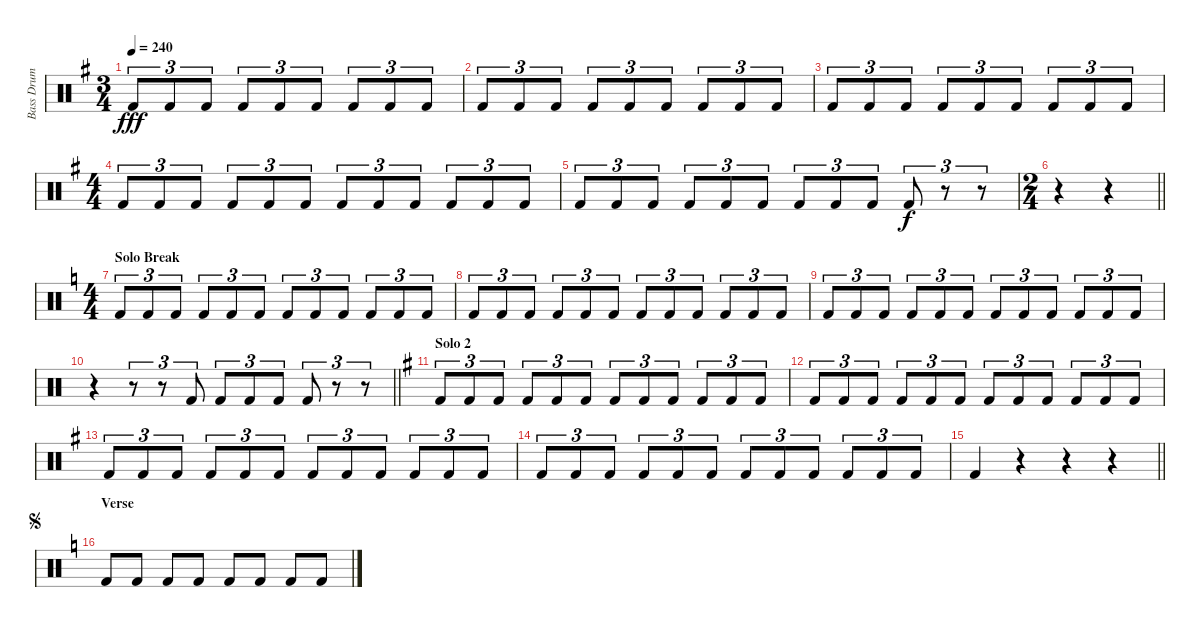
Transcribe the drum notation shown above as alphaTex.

\track ("Bass Drum" "Bass Drum") {instrument percussion}
\staff {score}
\articulation defaults
\ts (3 4)
\tempo 240
\clef neutral
\ks g "Kick (hit) 2".8{tu (3 2) dy fff} "Kick (hit) 2".8{tu (3 2)} "Kick (hit) 2".8{tu (3 2)} "Kick (hit) 2".8{tu (3 2)} "Kick (hit) 2".8{tu (3 2)} "Kick (hit) 2".8{tu (3 2)} "Kick (hit) 2".8{tu (3 2)} "Kick (hit) 2".8{tu (3 2)} "Kick (hit) 2".8{tu (3 2)}
|
"Kick (hit) 2".8{tu (3 2)} "Kick (hit) 2".8{tu (3 2)} "Kick (hit) 2".8{tu (3 2)} "Kick (hit) 2".8{tu (3 2)} "Kick (hit) 2".8{tu (3 2)} "Kick (hit) 2".8{tu (3 2)} "Kick (hit) 2".8{tu (3 2)} "Kick (hit) 2".8{tu (3 2)} "Kick (hit) 2".8{tu (3 2)} |
"Kick (hit) 2".8{tu (3 2)} "Kick (hit) 2".8{tu (3 2)} "Kick (hit) 2".8{tu (3 2)} "Kick (hit) 2".8{tu (3 2)} "Kick (hit) 2".8{tu (3 2)} "Kick (hit) 2".8{tu (3 2)} "Kick (hit) 2".8{tu (3 2)} "Kick (hit) 2".8{tu (3 2)} "Kick (hit) 2".8{tu (3 2)} |
\ts (4 4)
"Kick (hit) 2".8{tu (3 2)} "Kick (hit) 2".8{tu (3 2)} "Kick (hit) 2".8{tu (3 2)} "Kick (hit) 2".8{tu (3 2)} "Kick (hit) 2".8{tu (3 2)} "Kick (hit) 2".8{tu (3 2)} "Kick (hit) 2".8{tu (3 2)} "Kick (hit) 2".8{tu (3 2)} "Kick (hit) 2".8{tu (3 2)} "Kick (hit) 2".8{tu (3 2)} "Kick (hit) 2".8{tu (3 2)} "Kick (hit) 2".8{tu (3 2)} |
"Kick (hit) 2".8{tu (3 2)} "Kick (hit) 2".8{tu (3 2)} "Kick (hit) 2".8{tu (3 2)} "Kick (hit) 2".8{tu (3 2)} "Kick (hit) 2".8{tu (3 2)} "Kick (hit) 2".8{tu (3 2)} "Kick (hit) 2".8{tu (3 2)} "Kick (hit) 2".8{tu (3 2)} "Kick (hit) 2".8{tu (3 2)} "Kick (hit) 2".8{tu (3 2) dy f} r.8{tu (3 2)} r.8{tu (3 2)} |
\ts (2 4)
\barLineRight lightlight
r.4 r.4 |
\ts (4 4)
\section ("" "Solo Break")
\ks c "Kick (hit) 2".8{tu (3 2)} "Kick (hit) 2".8{tu (3 2)} "Kick (hit) 2".8{tu (3 2)} "Kick (hit) 2".8{tu (3 2)} "Kick (hit) 2".8{tu (3 2)} "Kick (hit) 2".8{tu (3 2)} "Kick (hit) 2".8{tu (3 2)} "Kick (hit) 2".8{tu (3 2)} "Kick (hit) 2".8{tu (3 2)} "Kick (hit) 2".8{tu (3 2)} "Kick (hit) 2".8{tu (3 2)} "Kick (hit) 2".8{tu (3 2)}
|
"Kick (hit) 2".8{tu (3 2)} "Kick (hit) 2".8{tu (3 2)} "Kick (hit) 2".8{tu (3 2)} "Kick (hit) 2".8{tu (3 2)} "Kick (hit) 2".8{tu (3 2)} "Kick (hit) 2".8{tu (3 2)} "Kick (hit) 2".8{tu (3 2)} "Kick (hit) 2".8{tu (3 2)} "Kick (hit) 2".8{tu (3 2)} "Kick (hit) 2".8{tu (3 2)} "Kick (hit) 2".8{tu (3 2)} "Kick (hit) 2".8{tu (3 2)} |
"Kick (hit) 2".8{tu (3 2)} "Kick (hit) 2".8{tu (3 2)} "Kick (hit) 2".8{tu (3 2)} "Kick (hit) 2".8{tu (3 2)} "Kick (hit) 2".8{tu (3 2)} "Kick (hit) 2".8{tu (3 2)} "Kick (hit) 2".8{tu (3 2)} "Kick (hit) 2".8{tu (3 2)} "Kick (hit) 2".8{tu (3 2)} "Kick (hit) 2".8{tu (3 2)} "Kick (hit) 2".8{tu (3 2)} "Kick (hit) 2".8{tu (3 2)} |
\barLineRight lightlight
r.4 r.8{tu (3 2)} r.8{tu (3 2)} "Kick (hit) 2".8{tu (3 2)} "Kick (hit) 2".8{tu (3 2)} "Kick (hit) 2".8{tu (3 2)} "Kick (hit) 2".8{tu (3 2)} "Kick (hit) 2".8{tu (3 2)} r.8{tu (3 2)} r.8{tu (3 2)} |
\section ("" "Solo 2")
\ks g "Kick (hit) 2".8{tu (3 2)} "Kick (hit) 2".8{tu (3 2)} "Kick (hit) 2".8{tu (3 2)} "Kick (hit) 2".8{tu (3 2)} "Kick (hit) 2".8{tu (3 2)} "Kick (hit) 2".8{tu (3 2)} "Kick (hit) 2".8{tu (3 2)} "Kick (hit) 2".8{tu (3 2)} "Kick (hit) 2".8{tu (3 2)} "Kick (hit) 2".8{tu (3 2)} "Kick (hit) 2".8{tu (3 2)} "Kick (hit) 2".8{tu (3 2)}
|
"Kick (hit) 2".8{tu (3 2)} "Kick (hit) 2".8{tu (3 2)} "Kick (hit) 2".8{tu (3 2)} "Kick (hit) 2".8{tu (3 2)} "Kick (hit) 2".8{tu (3 2)} "Kick (hit) 2".8{tu (3 2)} "Kick (hit) 2".8{tu (3 2)} "Kick (hit) 2".8{tu (3 2)} "Kick (hit) 2".8{tu (3 2)} "Kick (hit) 2".8{tu (3 2)} "Kick (hit) 2".8{tu (3 2)} "Kick (hit) 2".8{tu (3 2)} |
"Kick (hit) 2".8{tu (3 2)} "Kick (hit) 2".8{tu (3 2)} "Kick (hit) 2".8{tu (3 2)} "Kick (hit) 2".8{tu (3 2)} "Kick (hit) 2".8{tu (3 2)} "Kick (hit) 2".8{tu (3 2)} "Kick (hit) 2".8{tu (3 2)} "Kick (hit) 2".8{tu (3 2)} "Kick (hit) 2".8{tu (3 2)} "Kick (hit) 2".8{tu (3 2)} "Kick (hit) 2".8{tu (3 2)} "Kick (hit) 2".8{tu (3 2)} |
"Kick (hit) 2".8{tu (3 2)} "Kick (hit) 2".8{tu (3 2)} "Kick (hit) 2".8{tu (3 2)} "Kick (hit) 2".8{tu (3 2)} "Kick (hit) 2".8{tu (3 2)} "Kick (hit) 2".8{tu (3 2)} "Kick (hit) 2".8{tu (3 2)} "Kick (hit) 2".8{tu (3 2)} "Kick (hit) 2".8{tu (3 2)} "Kick (hit) 2".8{tu (3 2)} "Kick (hit) 2".8{tu (3 2)} "Kick (hit) 2".8{tu (3 2)} |
\barLineRight lightlight "Kick (hit) 2".4
r.4 r.4 r.4 |
\section ("" "Verse ")
\jump segno
\ks c "Kick (hit) 2".8 "Kick (hit) 2".8 "Kick (hit) 2".8 "Kick (hit) 2".8 "Kick (hit) 2".8 "Kick (hit) 2".8 "Kick (hit) 2".8 "Kick (hit) 2".8
